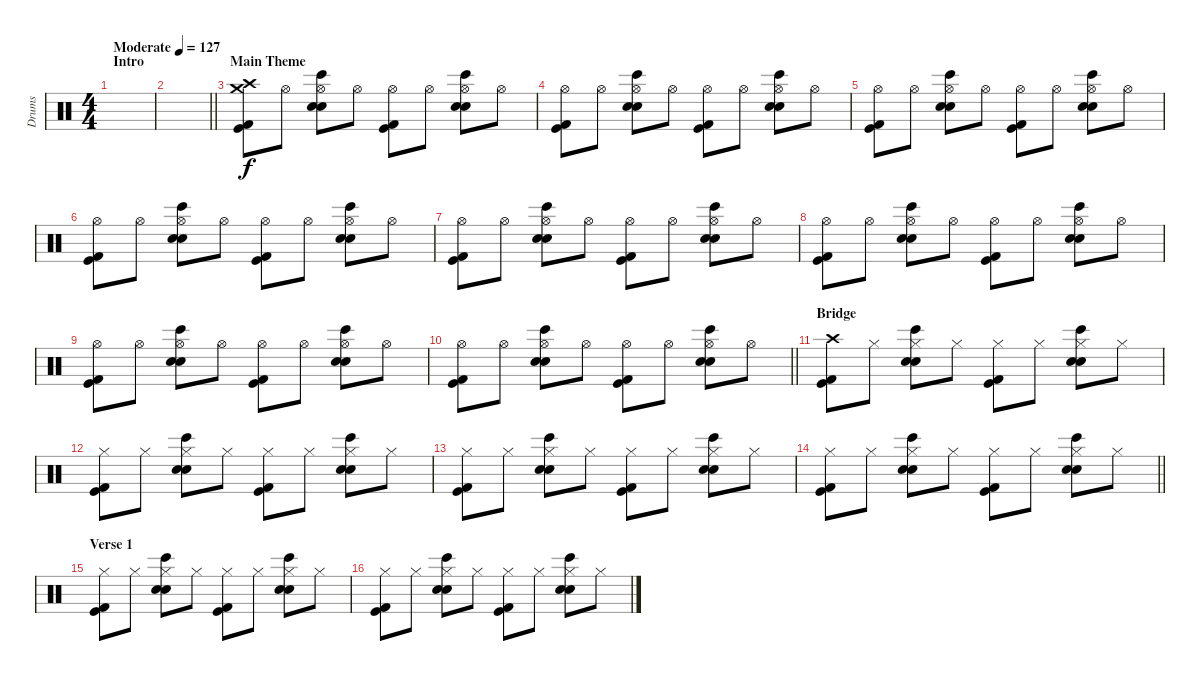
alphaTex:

\track ("Drums" "Drums") {instrument percussion}
\staff {score}
\articulation defaults
\ts (4 4)
\section ("" "Intro")
\tempo (127 "Moderate")
\clef neutral
\ks c
|
\barLineRight lightlight
|
\section ("" "Main Theme")
("Crash high (hit)" "Crash medium (hit)" "Kick (hit) 2" "Kick (hit)").8 "Hi-Hat (open)".8 ("Hi-Hat (open)" "Bongo High (hit)" "Snare (hit) 2" "Electric Snare (hit)").8 "Hi-Hat (open)".8 ("Hi-Hat (open)" "Kick (hit) 2" "Kick (hit)").8 "Hi-Hat (open)".8 ("Hi-Hat (open)" "Bongo High (hit)" "Snare (hit) 2" "Electric Snare (hit)").8 "Hi-Hat (open)".8 |
("Hi-Hat (open)" "Kick (hit) 2" "Kick (hit)").8 "Hi-Hat (open)".8 ("Hi-Hat (open)" "Bongo High (hit)" "Snare (hit) 2" "Electric Snare (hit)").8 "Hi-Hat (open)".8 ("Hi-Hat (open)" "Kick (hit) 2" "Kick (hit)").8 "Hi-Hat (open)".8 ("Hi-Hat (open)" "Bongo High (hit)" "Snare (hit) 2" "Electric Snare (hit)").8 "Hi-Hat (open)".8 |
("Hi-Hat (open)" "Kick (hit) 2" "Kick (hit)").8 "Hi-Hat (open)".8 ("Hi-Hat (open)" "Bongo High (hit)" "Snare (hit) 2" "Electric Snare (hit)").8 "Hi-Hat (open)".8 ("Hi-Hat (open)" "Kick (hit) 2" "Kick (hit)").8 "Hi-Hat (open)".8 ("Hi-Hat (open)" "Bongo High (hit)" "Snare (hit) 2" "Electric Snare (hit)").8 "Hi-Hat (open)".8 |
("Hi-Hat (open)" "Kick (hit) 2" "Kick (hit)").8 "Hi-Hat (open)".8 ("Hi-Hat (open)" "Bongo High (hit)" "Snare (hit) 2" "Electric Snare (hit)").8 "Hi-Hat (open)".8 ("Hi-Hat (open)" "Kick (hit) 2" "Kick (hit)").8 "Hi-Hat (open)".8 ("Hi-Hat (open)" "Bongo High (hit)" "Snare (hit) 2" "Electric Snare (hit)").8 "Hi-Hat (open)".8 |
("Hi-Hat (open)" "Kick (hit) 2" "Kick (hit)").8 "Hi-Hat (open)".8 ("Hi-Hat (open)" "Bongo High (hit)" "Snare (hit) 2" "Electric Snare (hit)").8 "Hi-Hat (open)".8 ("Hi-Hat (open)" "Kick (hit) 2" "Kick (hit)").8 "Hi-Hat (open)".8 ("Hi-Hat (open)" "Bongo High (hit)" "Snare (hit) 2" "Electric Snare (hit)").8 "Hi-Hat (open)".8 |
("Hi-Hat (open)" "Kick (hit) 2" "Kick (hit)").8 "Hi-Hat (open)".8 ("Hi-Hat (open)" "Bongo High (hit)" "Snare (hit) 2" "Electric Snare (hit)").8 "Hi-Hat (open)".8 ("Hi-Hat (open)" "Kick (hit) 2" "Kick (hit)").8 "Hi-Hat (open)".8 ("Hi-Hat (open)" "Bongo High (hit)" "Snare (hit) 2" "Electric Snare (hit)").8 "Hi-Hat (open)".8 |
("Hi-Hat (open)" "Kick (hit) 2" "Kick (hit)").8 "Hi-Hat (open)".8 ("Hi-Hat (open)" "Bongo High (hit)" "Snare (hit) 2" "Electric Snare (hit)").8 "Hi-Hat (open)".8 ("Hi-Hat (open)" "Kick (hit) 2" "Kick (hit)").8 "Hi-Hat (open)".8 ("Hi-Hat (open)" "Bongo High (hit)" "Snare (hit) 2" "Electric Snare (hit)").8 "Hi-Hat (open)".8 |
\barLineRight lightlight
("Hi-Hat (open)" "Kick (hit) 2" "Kick (hit)").8 "Hi-Hat (open)".8 ("Hi-Hat (open)" "Bongo High (hit)" "Snare (hit) 2" "Electric Snare (hit)").8 "Hi-Hat (open)".8 ("Hi-Hat (open)" "Kick (hit) 2" "Kick (hit)").8 "Hi-Hat (open)".8 ("Hi-Hat (open)" "Bongo High (hit)" "Snare (hit) 2" "Electric Snare (hit)").8 "Hi-Hat (open)".8 |
\section ("" "Bridge")
("Crash high (hit)" "Kick (hit) 2" "Kick (hit)").8 "Hi-Hat (closed)".8 ("Hi-Hat (closed)" "Bongo High (hit)" "Snare (hit) 2" "Electric Snare (hit)").8 "Hi-Hat (closed)".8 ("Hi-Hat (closed)" "Kick (hit) 2" "Kick (hit)").8 "Hi-Hat (closed)".8 ("Hi-Hat (closed)" "Bongo High (hit)" "Snare (hit) 2" "Electric Snare (hit)").8 "Hi-Hat (closed)".8 |
("Hi-Hat (closed)" "Kick (hit) 2" "Kick (hit)").8 "Hi-Hat (closed)".8 ("Hi-Hat (closed)" "Bongo High (hit)" "Snare (hit) 2" "Electric Snare (hit)").8 "Hi-Hat (closed)".8 ("Hi-Hat (closed)" "Kick (hit) 2" "Kick (hit)").8 "Hi-Hat (closed)".8 ("Hi-Hat (closed)" "Bongo High (hit)" "Snare (hit) 2" "Electric Snare (hit)").8 "Hi-Hat (closed)".8 |
("Hi-Hat (closed)" "Kick (hit) 2" "Kick (hit)").8 "Hi-Hat (closed)".8 ("Hi-Hat (closed)" "Bongo High (hit)" "Snare (hit) 2" "Electric Snare (hit)").8 "Hi-Hat (closed)".8 ("Hi-Hat (closed)" "Kick (hit) 2" "Kick (hit)").8 "Hi-Hat (closed)".8 ("Hi-Hat (closed)" "Bongo High (hit)" "Snare (hit) 2" "Electric Snare (hit)").8 "Hi-Hat (closed)".8 |
\barLineRight lightlight
("Hi-Hat (closed)" "Kick (hit) 2" "Kick (hit)").8 "Hi-Hat (closed)".8 ("Hi-Hat (closed)" "Bongo High (hit)" "Snare (hit) 2" "Electric Snare (hit)").8 "Hi-Hat (closed)".8 ("Hi-Hat (closed)" "Kick (hit) 2" "Kick (hit)").8 "Hi-Hat (closed)".8 ("Hi-Hat (closed)" "Bongo High (hit)" "Snare (hit) 2" "Electric Snare (hit)").8 "Hi-Hat (closed)".8 |
\section ("" "Verse 1")
("Hi-Hat (closed)" "Kick (hit) 2" "Kick (hit)").8 "Hi-Hat (closed)".8 ("Hi-Hat (closed)" "Bongo High (hit)" "Snare (hit) 2" "Electric Snare (hit)").8 "Hi-Hat (closed)".8 ("Hi-Hat (closed)" "Kick (hit) 2" "Kick (hit)").8 "Hi-Hat (closed)".8 ("Hi-Hat (closed)" "Bongo High (hit)" "Snare (hit) 2" "Electric Snare (hit)").8 "Hi-Hat (closed)".8 |
("Hi-Hat (closed)" "Kick (hit) 2" "Kick (hit)").8 "Hi-Hat (closed)".8 ("Hi-Hat (closed)" "Bongo High (hit)" "Snare (hit) 2" "Electric Snare (hit)").8 "Hi-Hat (closed)".8 ("Hi-Hat (closed)" "Kick (hit) 2" "Kick (hit)").8 "Hi-Hat (closed)".8 ("Hi-Hat (closed)" "Bongo High (hit)" "Snare (hit) 2" "Electric Snare (hit)").8 "Hi-Hat (closed)".8
